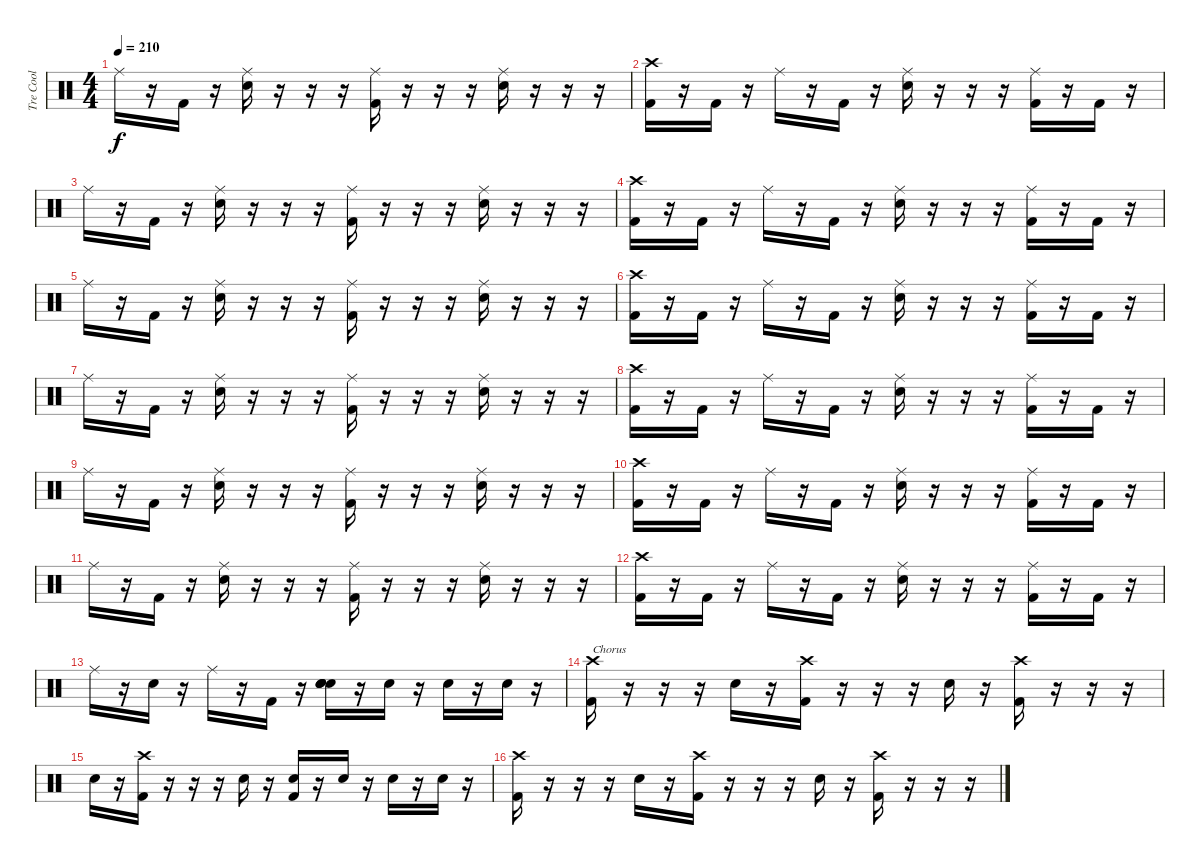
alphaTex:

\track ("Tre Cool" "Tre Cool") {instrument percussion}
\staff {score}
\articulation defaults
\ts (4 4)
\tempo 210
\clef neutral
\ks c "Ride (middle)".16{dy f}
r.16 "Kick (hit) 2".16 r.16 ("Ride (middle)" "Snare (hit) 2").16 r.16 r.16 r.16 ("Ride (middle)" "Kick (hit) 2").16 r.16 r.16 r.16 ("Ride (middle)" "Snare (hit) 2").16 r.16 r.16 r.16 |
("Crash high (hit)" "Kick (hit) 2").16 r.16 "Kick (hit) 2".16 r.16 "Ride (middle)".16 r.16 "Kick (hit) 2".16 r.16 ("Ride (middle)" "Snare (hit) 2").16 r.16 r.16 r.16 ("Ride (middle)" "Kick (hit) 2").16 r.16 "Kick (hit) 2".16 r.16 |
"Ride (middle)".16 r.16 "Kick (hit) 2".16 r.16 ("Ride (middle)" "Snare (hit) 2").16 r.16 r.16 r.16 ("Ride (middle)" "Kick (hit) 2").16 r.16 r.16 r.16 ("Ride (middle)" "Snare (hit) 2").16 r.16 r.16 r.16 |
("Crash high (hit)" "Kick (hit) 2").16 r.16 "Kick (hit) 2".16 r.16 "Ride (middle)".16 r.16 "Kick (hit) 2".16 r.16 ("Ride (middle)" "Snare (hit) 2").16 r.16 r.16 r.16 ("Ride (middle)" "Kick (hit) 2").16 r.16 "Kick (hit) 2".16 r.16 |
"Ride (middle)".16 r.16 "Kick (hit) 2".16 r.16 ("Ride (middle)" "Snare (hit) 2").16 r.16 r.16 r.16 ("Ride (middle)" "Kick (hit) 2").16 r.16 r.16 r.16 ("Ride (middle)" "Snare (hit) 2").16 r.16 r.16 r.16 |
("Crash high (hit)" "Kick (hit) 2").16 r.16 "Kick (hit) 2".16 r.16 "Ride (middle)".16 r.16 "Kick (hit) 2".16 r.16 ("Ride (middle)" "Snare (hit) 2").16 r.16 r.16 r.16 ("Ride (middle)" "Kick (hit) 2").16 r.16 "Kick (hit) 2".16 r.16 |
"Ride (middle)".16 r.16 "Kick (hit) 2".16 r.16 ("Ride (middle)" "Snare (hit) 2").16 r.16 r.16 r.16 ("Ride (middle)" "Kick (hit) 2").16 r.16 r.16 r.16 ("Ride (middle)" "Snare (hit) 2").16 r.16 r.16 r.16 |
("Crash high (hit)" "Kick (hit) 2").16 r.16 "Kick (hit) 2".16 r.16 "Ride (middle)".16 r.16 "Kick (hit) 2".16 r.16 ("Ride (middle)" "Snare (hit) 2").16 r.16 r.16 r.16 ("Ride (middle)" "Kick (hit) 2").16 r.16 "Kick (hit) 2".16 r.16 |
"Ride (middle)".16 r.16 "Kick (hit) 2".16 r.16 ("Ride (middle)" "Snare (hit) 2").16 r.16 r.16 r.16 ("Ride (middle)" "Kick (hit) 2").16 r.16 r.16 r.16 ("Ride (middle)" "Snare (hit) 2").16 r.16 r.16 r.16 |
("Crash high (hit)" "Kick (hit) 2").16 r.16 "Kick (hit) 2".16 r.16 "Ride (middle)".16 r.16 "Kick (hit) 2".16 r.16 ("Ride (middle)" "Snare (hit) 2").16 r.16 r.16 r.16 ("Ride (middle)" "Kick (hit) 2").16 r.16 "Kick (hit) 2".16 r.16 |
"Ride (middle)".16 r.16 "Kick (hit) 2".16 r.16 ("Ride (middle)" "Snare (hit) 2").16 r.16 r.16 r.16 ("Ride (middle)" "Kick (hit) 2").16 r.16 r.16 r.16 ("Ride (middle)" "Snare (hit) 2").16 r.16 r.16 r.16 |
("Crash high (hit)" "Kick (hit) 2").16 r.16 "Kick (hit) 2".16 r.16 "Ride (middle)".16 r.16 "Kick (hit) 2".16 r.16 ("Ride (middle)" "Snare (hit) 2").16 r.16 r.16 r.16 ("Ride (middle)" "Kick (hit) 2").16 r.16 "Kick (hit) 2".16 r.16 |
"Ride (middle)".16 r.16 "Snare (hit) 2".16 r.16 "Ride (middle)".16 r.16 "Kick (hit) 2".16 r.16 ("Snare (hit) 2" "Snare (hit) 2" "Snare (hit) 2" "Snare (hit) 2").16 r.16 "Snare (hit) 2".16 r.16 "Snare (hit) 2".16 r.16 "Snare (hit) 2".16 r.16 |
("Crash high (hit)" "Kick (hit) 2").16{txt "Chorus"} r.16 r.16 r.16 "Snare (hit) 2".16 r.16 ("Crash high (hit)" "Kick (hit) 2").16 r.16 r.16 r.16 "Snare (hit) 2".16 r.16 ("Crash high (hit)" "Kick (hit) 2").16 r.16 r.16 r.16 |
"Snare (hit) 2".16 r.16 ("Crash high (hit)" "Kick (hit) 2").16 r.16 r.16 r.16 "Snare (hit) 2".16 r.16 ("Snare (hit) 2" "Kick (hit) 2").16 r.16 "Snare (hit) 2".16 r.16 "Snare (hit) 2".16 r.16 "Snare (hit) 2".16 r.16 |
("Crash high (hit)" "Kick (hit) 2").16 r.16 r.16 r.16 "Snare (hit) 2".16 r.16 ("Crash high (hit)" "Kick (hit) 2").16 r.16 r.16 r.16 "Snare (hit) 2".16 r.16 ("Crash high (hit)" "Kick (hit) 2").16 r.16 r.16 r.16
